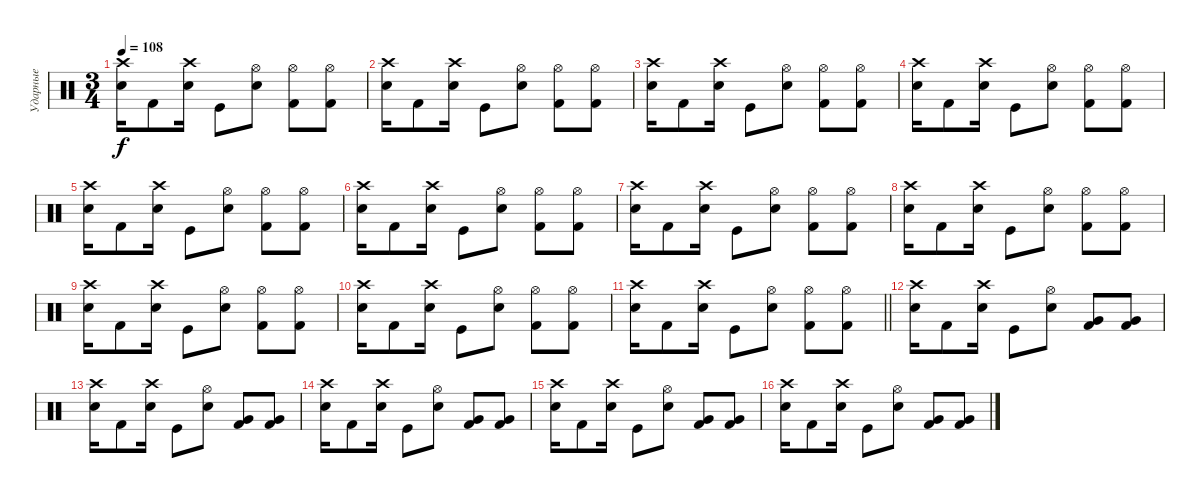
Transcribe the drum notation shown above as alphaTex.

\track ("Ударные" "Ударные") {instrument percussion}
\staff {score}
\articulation defaults
\ts (3 4)
\tempo 108
\clef neutral
\ks c
("Snare (hit) 2" "Crash high (hit)").16{dy f} "Kick (hit) 2".8 ("Snare (hit) 2" "Crash high (hit)").16 "Kick (hit)".8 ("Snare (hit) 2" "Hi-Hat (open)").8 ("Kick (hit) 2" "Hi-Hat (open)").8 ("Kick (hit) 2" "Hi-Hat (open)").8 |
("Snare (hit) 2" "Crash high (hit)").16 "Kick (hit) 2".8 ("Snare (hit) 2" "Crash high (hit)").16 "Kick (hit)".8 ("Snare (hit) 2" "Hi-Hat (open)").8 ("Kick (hit) 2" "Hi-Hat (open)").8 ("Kick (hit) 2" "Hi-Hat (open)").8 |
("Snare (hit) 2" "Crash high (hit)").16 "Kick (hit) 2".8 ("Snare (hit) 2" "Crash high (hit)").16 "Kick (hit)".8 ("Snare (hit) 2" "Hi-Hat (open)").8 ("Kick (hit) 2" "Hi-Hat (open)").8 ("Kick (hit) 2" "Hi-Hat (open)").8 |
("Snare (hit) 2" "Crash high (hit)").16 "Kick (hit) 2".8 ("Snare (hit) 2" "Crash high (hit)").16 "Kick (hit)".8 ("Snare (hit) 2" "Hi-Hat (open)").8 ("Kick (hit) 2" "Hi-Hat (open)").8 ("Kick (hit) 2" "Hi-Hat (open)").8 |
("Snare (hit) 2" "Crash high (hit)").16 "Kick (hit) 2".8 ("Snare (hit) 2" "Crash high (hit)").16 "Kick (hit)".8 ("Snare (hit) 2" "Hi-Hat (open)").8 ("Kick (hit) 2" "Hi-Hat (open)").8 ("Kick (hit) 2" "Hi-Hat (open)").8 |
("Snare (hit) 2" "Crash high (hit)").16 "Kick (hit) 2".8 ("Snare (hit) 2" "Crash high (hit)").16 "Kick (hit)".8 ("Snare (hit) 2" "Hi-Hat (open)").8 ("Kick (hit) 2" "Hi-Hat (open)").8 ("Kick (hit) 2" "Hi-Hat (open)").8 |
("Snare (hit) 2" "Crash high (hit)").16 "Kick (hit) 2".8 ("Snare (hit) 2" "Crash high (hit)").16 "Kick (hit)".8 ("Snare (hit) 2" "Hi-Hat (open)").8 ("Kick (hit) 2" "Hi-Hat (open)").8 ("Kick (hit) 2" "Hi-Hat (open)").8 |
("Snare (hit) 2" "Crash high (hit)").16 "Kick (hit) 2".8 ("Snare (hit) 2" "Crash high (hit)").16 "Kick (hit)".8 ("Snare (hit) 2" "Hi-Hat (open)").8 ("Kick (hit) 2" "Hi-Hat (open)").8 ("Kick (hit) 2" "Hi-Hat (open)").8 |
("Snare (hit) 2" "Crash high (hit)").16 "Kick (hit) 2".8 ("Snare (hit) 2" "Crash high (hit)").16 "Kick (hit)".8 ("Snare (hit) 2" "Hi-Hat (open)").8 ("Kick (hit) 2" "Hi-Hat (open)").8 ("Kick (hit) 2" "Hi-Hat (open)").8 |
("Snare (hit) 2" "Crash high (hit)").16 "Kick (hit) 2".8 ("Snare (hit) 2" "Crash high (hit)").16 "Kick (hit)".8 ("Snare (hit) 2" "Hi-Hat (open)").8 ("Kick (hit) 2" "Hi-Hat (open)").8 ("Kick (hit) 2" "Hi-Hat (open)").8 |
\barLineRight lightlight
("Snare (hit) 2" "Crash high (hit)").16 "Kick (hit) 2".8 ("Snare (hit) 2" "Crash high (hit)").16 "Kick (hit)".8 ("Snare (hit) 2" "Hi-Hat (open)").8 ("Kick (hit) 2" "Hi-Hat (open)").8 ("Kick (hit) 2" "Hi-Hat (open)").8 |
("Snare (hit) 2" "Crash high (hit)").16 "Kick (hit) 2".8 ("Snare (hit) 2" "Crash high (hit)").16 "Kick (hit)".8 ("Snare (hit) 2" "Hi-Hat (open)").8 ("Kick (hit) 2" "Very Low Tom (hit)").8 ("Kick (hit) 2" "Very Low Tom (hit)").8 |
("Snare (hit) 2" "Crash high (hit)").16 "Kick (hit) 2".8 ("Snare (hit) 2" "Crash high (hit)").16 "Kick (hit)".8 ("Snare (hit) 2" "Hi-Hat (open)").8 ("Kick (hit) 2" "Very Low Tom (hit)").8 ("Kick (hit) 2" "Very Low Tom (hit)").8 |
("Snare (hit) 2" "Crash high (hit)").16 "Kick (hit) 2".8 ("Snare (hit) 2" "Crash high (hit)").16 "Kick (hit)".8 ("Snare (hit) 2" "Hi-Hat (open)").8 ("Kick (hit) 2" "Very Low Tom (hit)").8 ("Kick (hit) 2" "Very Low Tom (hit)").8 |
("Snare (hit) 2" "Crash high (hit)").16 "Kick (hit) 2".8 ("Snare (hit) 2" "Crash high (hit)").16 "Kick (hit)".8 ("Snare (hit) 2" "Hi-Hat (open)").8 ("Kick (hit) 2" "Very Low Tom (hit)").8 ("Kick (hit) 2" "Very Low Tom (hit)").8 |
("Snare (hit) 2" "Crash high (hit)").16 "Kick (hit) 2".8 ("Snare (hit) 2" "Crash high (hit)").16 "Kick (hit)".8 ("Snare (hit) 2" "Hi-Hat (open)").8 ("Kick (hit) 2" "Very Low Tom (hit)").8 ("Kick (hit) 2" "Very Low Tom (hit)").8
